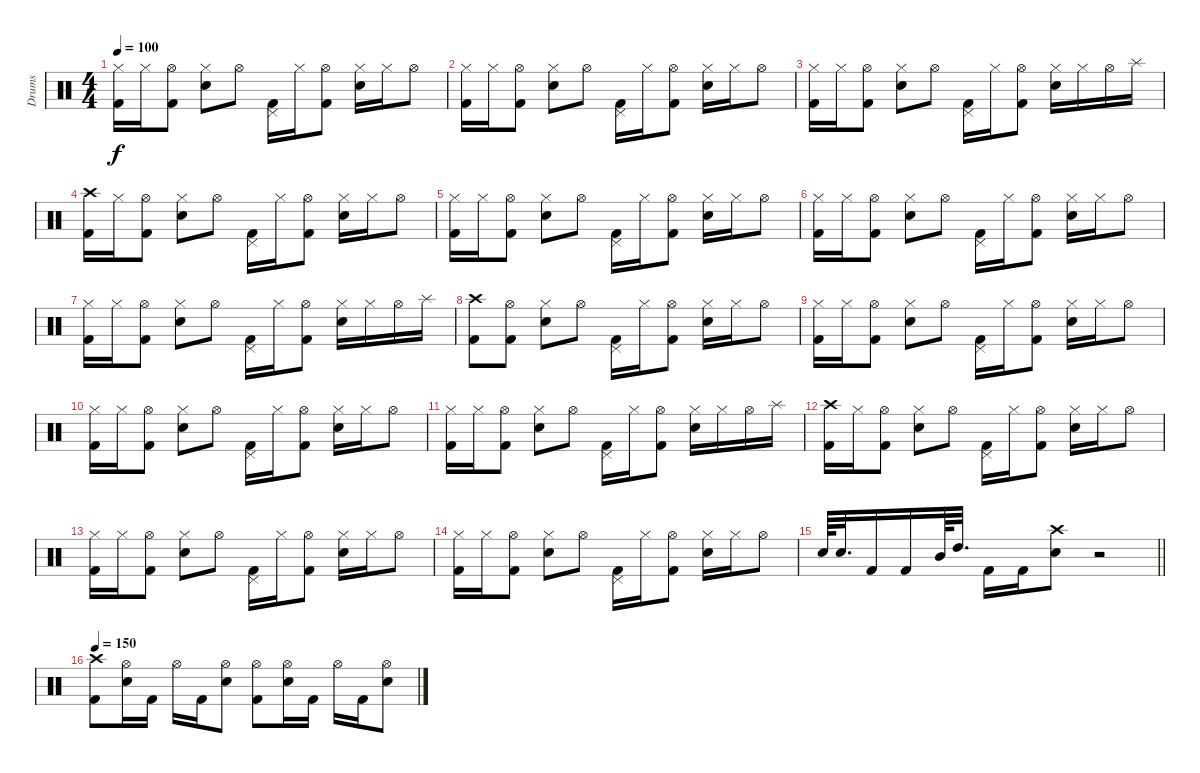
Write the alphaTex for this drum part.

\track ("Drums" "Drums") {instrument percussion}
\staff {score}
\articulation defaults
\ts (4 4)
\tempo 100
\clef neutral
\ks c
("Hi-Hat (closed)" "Kick (hit) 2").16{dy f} "Hi-Hat (closed)".16 ("Hi-Hat (open)" "Kick (hit) 2").8 ("Hi-Hat (closed)" "Electric Snare (hit)").8 "Hi-Hat (open)".8 ("Pedal Hi-Hat (hit)" "Kick (hit) 2").16 "Hi-Hat (closed)".16 ("Hi-Hat (open)" "Kick (hit) 2").8 ("Hi-Hat (closed)" "Electric Snare (hit)").16 "Hi-Hat (closed)".16 "Hi-Hat (open)".8 |
("Hi-Hat (closed)" "Kick (hit) 2").16 "Hi-Hat (closed)".16 ("Hi-Hat (open)" "Kick (hit) 2").8 ("Hi-Hat (closed)" "Electric Snare (hit)").8 "Hi-Hat (open)".8 ("Pedal Hi-Hat (hit)" "Kick (hit) 2").16 "Hi-Hat (closed)".16 ("Hi-Hat (open)" "Kick (hit) 2").8 ("Hi-Hat (closed)" "Electric Snare (hit)").16 "Hi-Hat (closed)".16 "Hi-Hat (open)".8 |
("Hi-Hat (closed)" "Kick (hit) 2").16 "Hi-Hat (closed)".16 ("Hi-Hat (open)" "Kick (hit) 2").8 ("Hi-Hat (closed)" "Electric Snare (hit)").8 "Hi-Hat (open)".8 ("Pedal Hi-Hat (hit)" "Kick (hit) 2").16 "Hi-Hat (closed)".16 ("Hi-Hat (open)" "Kick (hit) 2").8 ("Hi-Hat (closed)" "Electric Snare (hit)").16 "Hi-Hat (closed)".16 "Hi-Hat (open)".16 "Splash (hit)".16 |
("Crash high (hit)" "Kick (hit) 2").16 "Hi-Hat (closed)".16 ("Hi-Hat (open)" "Kick (hit) 2").8 ("Hi-Hat (closed)" "Electric Snare (hit)").8 "Hi-Hat (open)".8 ("Pedal Hi-Hat (hit)" "Kick (hit) 2").16 "Hi-Hat (closed)".16 ("Hi-Hat (open)" "Kick (hit) 2").8 ("Hi-Hat (closed)" "Electric Snare (hit)").16 "Hi-Hat (closed)".16 "Hi-Hat (open)".8 |
("Hi-Hat (closed)" "Kick (hit) 2").16 "Hi-Hat (closed)".16 ("Hi-Hat (open)" "Kick (hit) 2").8 ("Hi-Hat (closed)" "Electric Snare (hit)").8 "Hi-Hat (open)".8 ("Pedal Hi-Hat (hit)" "Kick (hit) 2").16 "Hi-Hat (closed)".16 ("Hi-Hat (open)" "Kick (hit) 2").8 ("Hi-Hat (closed)" "Electric Snare (hit)").16 "Hi-Hat (closed)".16 "Hi-Hat (open)".8 |
("Hi-Hat (closed)" "Kick (hit) 2").16 "Hi-Hat (closed)".16 ("Hi-Hat (open)" "Kick (hit) 2").8 ("Hi-Hat (closed)" "Electric Snare (hit)").8 "Hi-Hat (open)".8 ("Pedal Hi-Hat (hit)" "Kick (hit) 2").16 "Hi-Hat (closed)".16 ("Hi-Hat (open)" "Kick (hit) 2").8 ("Hi-Hat (closed)" "Electric Snare (hit)").16 "Hi-Hat (closed)".16 "Hi-Hat (open)".8 |
("Hi-Hat (closed)" "Kick (hit) 2").16 "Hi-Hat (closed)".16 ("Hi-Hat (open)" "Kick (hit) 2").8 ("Hi-Hat (closed)" "Electric Snare (hit)").8 "Hi-Hat (open)".8 ("Pedal Hi-Hat (hit)" "Kick (hit) 2").16 "Hi-Hat (closed)".16 ("Hi-Hat (open)" "Kick (hit) 2").8 ("Hi-Hat (closed)" "Electric Snare (hit)").16 "Hi-Hat (closed)".16 "Hi-Hat (open)".16 "Splash (hit)".16 |
("Crash high (hit)" "Kick (hit) 2").8 ("Hi-Hat (open)" "Kick (hit) 2").8 ("Hi-Hat (closed)" "Electric Snare (hit)").8 "Hi-Hat (open)".8 ("Pedal Hi-Hat (hit)" "Kick (hit) 2").16 "Hi-Hat (closed)".16 ("Hi-Hat (open)" "Kick (hit) 2").8 ("Hi-Hat (closed)" "Electric Snare (hit)").16 "Hi-Hat (closed)".16 "Hi-Hat (open)".8 |
("Hi-Hat (closed)" "Kick (hit) 2").16 "Hi-Hat (closed)".16 ("Hi-Hat (open)" "Kick (hit) 2").8 ("Hi-Hat (closed)" "Electric Snare (hit)").8 "Hi-Hat (open)".8 ("Pedal Hi-Hat (hit)" "Kick (hit) 2").16 "Hi-Hat (closed)".16 ("Hi-Hat (open)" "Kick (hit) 2").8 ("Hi-Hat (closed)" "Electric Snare (hit)").16 "Hi-Hat (closed)".16 "Hi-Hat (open)".8 |
("Hi-Hat (closed)" "Kick (hit) 2").16 "Hi-Hat (closed)".16 ("Hi-Hat (open)" "Kick (hit) 2").8 ("Hi-Hat (closed)" "Electric Snare (hit)").8 "Hi-Hat (open)".8 ("Pedal Hi-Hat (hit)" "Kick (hit) 2").16 "Hi-Hat (closed)".16 ("Hi-Hat (open)" "Kick (hit) 2").8 ("Hi-Hat (closed)" "Electric Snare (hit)").16 "Hi-Hat (closed)".16 "Hi-Hat (open)".8 |
("Hi-Hat (closed)" "Kick (hit) 2").16 "Hi-Hat (closed)".16 ("Hi-Hat (open)" "Kick (hit) 2").8 ("Hi-Hat (closed)" "Electric Snare (hit)").8 "Hi-Hat (open)".8 ("Pedal Hi-Hat (hit)" "Kick (hit) 2").16 "Hi-Hat (closed)".16 ("Hi-Hat (open)" "Kick (hit) 2").8 ("Hi-Hat (closed)" "Electric Snare (hit)").16 "Hi-Hat (closed)".16 "Hi-Hat (open)".16 "Splash (hit)".16 |
("Crash high (hit)" "Kick (hit) 2").16 "Hi-Hat (closed)".16 ("Hi-Hat (open)" "Kick (hit) 2").8 ("Hi-Hat (closed)" "Electric Snare (hit)").8 "Hi-Hat (open)".8 ("Pedal Hi-Hat (hit)" "Kick (hit) 2").16 "Hi-Hat (closed)".16 ("Hi-Hat (open)" "Kick (hit) 2").8 ("Hi-Hat (closed)" "Electric Snare (hit)").16 "Hi-Hat (closed)".16 "Hi-Hat (open)".8 |
("Hi-Hat (closed)" "Kick (hit) 2").16 "Hi-Hat (closed)".16 ("Hi-Hat (open)" "Kick (hit) 2").8 ("Hi-Hat (closed)" "Electric Snare (hit)").8 "Hi-Hat (open)".8 ("Pedal Hi-Hat (hit)" "Kick (hit) 2").16 "Hi-Hat (closed)".16 ("Hi-Hat (open)" "Kick (hit) 2").8 ("Hi-Hat (closed)" "Electric Snare (hit)").16 "Hi-Hat (closed)".16 "Hi-Hat (open)".8 |
("Hi-Hat (closed)" "Kick (hit) 2").16 "Hi-Hat (closed)".16 ("Hi-Hat (open)" "Kick (hit) 2").8 ("Hi-Hat (closed)" "Electric Snare (hit)").8 "Hi-Hat (open)".8 ("Pedal Hi-Hat (hit)" "Kick (hit) 2").16 "Hi-Hat (closed)".16 ("Hi-Hat (open)" "Kick (hit) 2").8 ("Hi-Hat (closed)" "Electric Snare (hit)").16 "Hi-Hat (closed)".16 "Hi-Hat (open)".8 |
\barLineRight lightlight "Electric Snare (hit)".64 "Electric Snare (hit)".32{d} "Kick (hit) 2".16 "Kick (hit) 2".16 "Mid Tom (hit)".64 "High Tom (hit)".32{d} "Kick (hit) 2".16 "Kick (hit) 2".16
("Crash high (hit)" "Electric Snare (hit)").8 r.2 |
\tempo 150
("Crash high (hit)" "Kick (hit) 2").8 ("Hi-Hat (open)" "Electric Snare (hit)").16 "Kick (hit) 2".16 "Hi-Hat (open)".16 "Kick (hit) 2".16 ("Hi-Hat (open)" "Electric Snare (hit)").8 ("Hi-Hat (open)" "Kick (hit) 2").8 ("Hi-Hat (open)" "Electric Snare (hit)").16 "Kick (hit) 2".16 "Hi-Hat (open)".16 "Kick (hit) 2".16 ("Hi-Hat (open)" "Electric Snare (hit)").8
